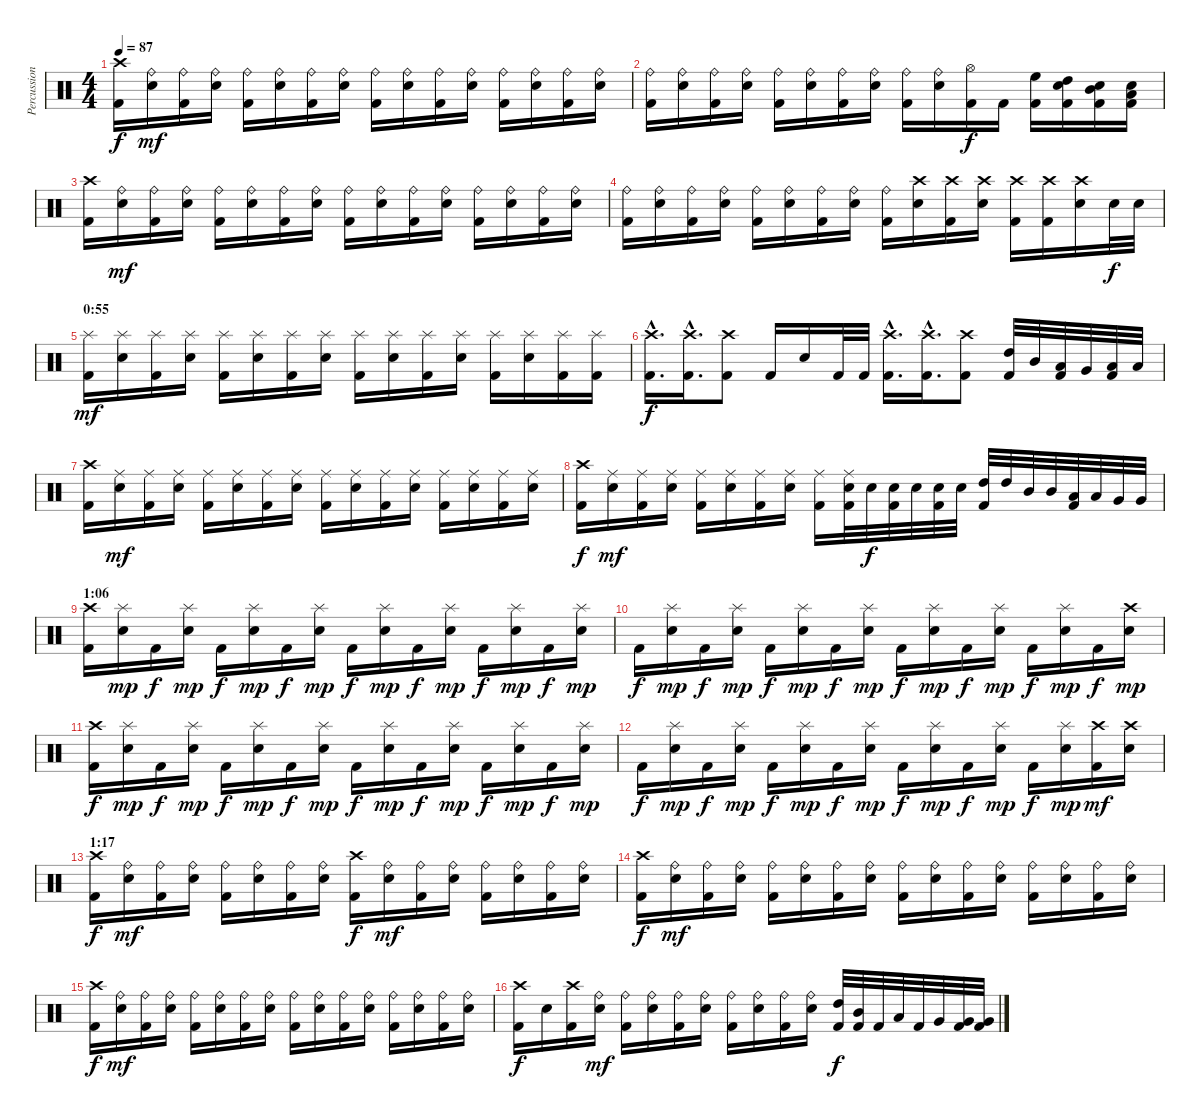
\track ("Percussion" "Percussion") {instrument percussion}
\staff {score}
\articulation defaults
\ts (4 4)
\tempo 87
\clef neutral
\ks c
("Crash high (hit)" "Kick (hit) 2").16{dy f} ("Ride (bell)" "Snare (hit) 2").16{dy mf} ("Ride (bell)" "Kick (hit) 2").16 ("Ride (bell)" "Snare (hit) 2").16 ("Ride (bell)" "Kick (hit) 2").16 ("Ride (bell)" "Snare (hit) 2").16 ("Ride (bell)" "Kick (hit) 2").16 ("Ride (bell)" "Snare (hit) 2").16 ("Ride (bell)" "Kick (hit) 2").16 ("Ride (bell)" "Snare (hit) 2").16 ("Ride (bell)" "Kick (hit) 2").16 ("Ride (bell)" "Snare (hit) 2").16 ("Ride (bell)" "Kick (hit) 2").16 ("Ride (bell)" "Snare (hit) 2").16 ("Ride (bell)" "Kick (hit) 2").16 ("Ride (bell)" "Snare (hit) 2").16 |
("Ride (bell)" "Kick (hit) 2").16 ("Ride (bell)" "Snare (hit) 2").16 ("Ride (bell)" "Kick (hit) 2").16 ("Ride (bell)" "Snare (hit) 2").16 ("Ride (bell)" "Kick (hit) 2").16 ("Ride (bell)" "Snare (hit) 2").16 ("Ride (bell)" "Kick (hit) 2").16 ("Ride (bell)" "Snare (hit) 2").16 ("Ride (bell)" "Kick (hit) 2").16 ("Ride (bell)" "Snare (hit) 2").16 ("Hi-Hat (open)" "Kick (hit) 2").16{dy f} "Kick (hit) 2".16 ("High Floor Tom (hit)" "Kick (hit) 2").16 ("High Tom (hit)" "Snare (hit) 2" "Kick (hit) 2").16 ("Mid Tom (hit)" "Snare (hit) 2" "Kick (hit) 2").16 ("Low Tom (hit)" "Snare (hit) 2" "Kick (hit) 2").16 |
("Crash high (hit)" "Kick (hit) 2").16 ("Ride (bell)" "Snare (hit) 2").16{dy mf} ("Ride (bell)" "Kick (hit) 2").16 ("Ride (bell)" "Snare (hit) 2").16 ("Ride (bell)" "Kick (hit) 2").16 ("Ride (bell)" "Snare (hit) 2").16 ("Ride (bell)" "Kick (hit) 2").16 ("Ride (bell)" "Snare (hit) 2").16 ("Ride (bell)" "Kick (hit) 2").16 ("Ride (bell)" "Snare (hit) 2").16 ("Ride (bell)" "Kick (hit) 2").16 ("Ride (bell)" "Snare (hit) 2").16 ("Ride (bell)" "Kick (hit) 2").16 ("Ride (bell)" "Snare (hit) 2").16 ("Ride (bell)" "Kick (hit) 2").16 ("Ride (bell)" "Snare (hit) 2").16 |
("Ride (bell)" "Kick (hit) 2").16 ("Ride (bell)" "Snare (hit) 2").16 ("Ride (bell)" "Kick (hit) 2").16 ("Ride (bell)" "Snare (hit) 2").16 ("Ride (bell)" "Kick (hit) 2").16 ("Ride (bell)" "Snare (hit) 2").16 ("Ride (bell)" "Kick (hit) 2").16 ("Ride (bell)" "Snare (hit) 2").16 ("Ride (bell)" "Kick (hit) 2").16 ("Crash high (hit)" "Snare (hit) 2").16 ("Crash high (hit)" "Kick (hit) 2").16 ("Crash high (hit)" "Snare (hit) 2").16 ("Crash high (hit)" "Kick (hit) 2").16 ("Crash high (hit)" "Kick (hit) 2").16 ("Crash high (hit)" "Snare (hit) 2").16 "Snare (hit) 2".32{dy f} "Snare (hit) 2".32 |
\section ("" "0:55")
("Splash (hit)" "Kick (hit) 2").16{dy mf} ("Splash (hit)" "Snare (hit) 2").16 ("Splash (hit)" "Kick (hit) 2").16 ("Splash (hit)" "Snare (hit) 2").16 ("Splash (hit)" "Kick (hit) 2").16 ("Splash (hit)" "Snare (hit) 2").16 ("Splash (hit)" "Kick (hit) 2").16 ("Splash (hit)" "Snare (hit) 2").16 ("Splash (hit)" "Kick (hit) 2").16 ("Splash (hit)" "Snare (hit) 2").16 ("Splash (hit)" "Kick (hit) 2").16 ("Splash (hit)" "Snare (hit) 2").16 ("Splash (hit)" "Kick (hit) 2").16 ("Splash (hit)" "Snare (hit) 2").16 ("Splash (hit)" "Kick (hit) 2").16 ("Splash (hit)" "Kick (hit) 2").16 |
("Crash high (hit)"{hac} "Kick (hit) 2"{hac}).16{d dy f} ("Crash high (hit)"{hac} "Kick (hit) 2"{hac}).16{d} ("Crash high (hit)" "Kick (hit) 2").8 "Kick (hit) 2".16 "Snare (hit) 2".16 "Kick (hit) 2".32 "Kick (hit) 2".32 ("Crash high (hit)"{hac} "Kick (hit) 2"{hac}).16{d} ("Crash high (hit)"{hac} "Kick (hit) 2"{hac}).16{d} ("Crash high (hit)" "Kick (hit) 2").8 ("High Tom (hit)" "Kick (hit) 2").32 "Mid Tom (hit)".32 ("Low Tom (hit)" "Kick (hit) 2").32 "Very Low Tom (hit)".32 ("Low Floor Tom (hit)" "Kick (hit) 2").32 "Low Floor Tom (hit)".32 |
("Crash high (hit)" "Kick (hit) 2").16 ("Ride (middle)" "Snare (hit) 2").16{dy mf} ("Ride (middle)" "Kick (hit) 2").16 ("Ride (middle)" "Snare (hit) 2").16 ("Ride (middle)" "Kick (hit) 2").16 ("Ride (middle)" "Snare (hit) 2").16 ("Ride (middle)" "Kick (hit) 2").16 ("Ride (middle)" "Snare (hit) 2").16 ("Ride (middle)" "Kick (hit) 2").16 ("Ride (middle)" "Snare (hit) 2").16 ("Ride (middle)" "Kick (hit) 2").16 ("Ride (middle)" "Snare (hit) 2").16 ("Ride (middle)" "Kick (hit) 2").16 ("Ride (middle)" "Snare (hit) 2").16 ("Ride (middle)" "Kick (hit) 2").16 ("Ride (middle)" "Snare (hit) 2").16 |
("Crash high (hit)" "Kick (hit) 2").16{dy f} ("Ride (middle)" "Snare (hit) 2").16{dy mf} ("Ride (middle)" "Kick (hit) 2").16 ("Ride (middle)" "Snare (hit) 2").16 ("Ride (middle)" "Kick (hit) 2").16 ("Ride (middle)" "Snare (hit) 2").16 ("Ride (middle)" "Kick (hit) 2").16 ("Ride (middle)" "Snare (hit) 2").16 ("Ride (middle)" "Kick (hit) 2").16 ("Ride (middle)" "Snare (hit) 2" "Kick (hit) 2").32 "Snare (hit) 2".32{dy f} ("Snare (hit) 2" "Kick (hit) 2").32 "Snare (hit) 2".32 ("Snare (hit) 2" "Kick (hit) 2").32 "Snare (hit) 2".32 ("High Tom (hit)" "Kick (hit) 2").32 "High Tom (hit)".32 "Mid Tom (hit)".32 "Mid Tom (hit)".32 ("Low Tom (hit)" "Kick (hit) 2").32 "Low Tom (hit)".32 "Very Low Tom (hit)".32 "Very Low Tom (hit)".32 |
\section ("" "1:06")
("Crash high (hit)" "Kick (hit) 2").16 ("Splash (hit)" "Snare (hit) 2").16{dy mp} "Kick (hit) 2".16{dy f} ("Splash (hit)" "Snare (hit) 2").16{dy mp} "Kick (hit) 2".16{dy f} ("Splash (hit)" "Snare (hit) 2").16{dy mp} "Kick (hit) 2".16{dy f} ("Splash (hit)" "Snare (hit) 2").16{dy mp} "Kick (hit) 2".16{dy f} ("Splash (hit)" "Snare (hit) 2").16{dy mp} "Kick (hit) 2".16{dy f} ("Splash (hit)" "Snare (hit) 2").16{dy mp} "Kick (hit) 2".16{dy f} ("Splash (hit)" "Snare (hit) 2").16{dy mp} "Kick (hit) 2".16{dy f} ("Splash (hit)" "Snare (hit) 2").16{dy mp} |
"Kick (hit) 2".16{dy f} ("Splash (hit)" "Snare (hit) 2").16{dy mp} "Kick (hit) 2".16{dy f} ("Splash (hit)" "Snare (hit) 2").16{dy mp} "Kick (hit) 2".16{dy f} ("Splash (hit)" "Snare (hit) 2").16{dy mp} "Kick (hit) 2".16{dy f} ("Splash (hit)" "Snare (hit) 2").16{dy mp} "Kick (hit) 2".16{dy f} ("Splash (hit)" "Snare (hit) 2").16{dy mp} "Kick (hit) 2".16{dy f} ("Splash (hit)" "Snare (hit) 2").16{dy mp} "Kick (hit) 2".16{dy f} ("Splash (hit)" "Snare (hit) 2").16{dy mp} "Kick (hit) 2".16{dy f} ("Crash high (hit)" "Snare (hit) 2").16{dy mp} |
("Crash high (hit)" "Kick (hit) 2").16{dy f} ("Splash (hit)" "Snare (hit) 2").16{dy mp} "Kick (hit) 2".16{dy f} ("Splash (hit)" "Snare (hit) 2").16{dy mp} "Kick (hit) 2".16{dy f} ("Splash (hit)" "Snare (hit) 2").16{dy mp} "Kick (hit) 2".16{dy f} ("Splash (hit)" "Snare (hit) 2").16{dy mp} "Kick (hit) 2".16{dy f} ("Splash (hit)" "Snare (hit) 2").16{dy mp} "Kick (hit) 2".16{dy f} ("Splash (hit)" "Snare (hit) 2").16{dy mp} "Kick (hit) 2".16{dy f} ("Splash (hit)" "Snare (hit) 2").16{dy mp} "Kick (hit) 2".16{dy f} ("Splash (hit)" "Snare (hit) 2").16{dy mp} |
"Kick (hit) 2".16{dy f} ("Splash (hit)" "Snare (hit) 2").16{dy mp} "Kick (hit) 2".16{dy f} ("Splash (hit)" "Snare (hit) 2").16{dy mp} "Kick (hit) 2".16{dy f} ("Splash (hit)" "Snare (hit) 2").16{dy mp} "Kick (hit) 2".16{dy f} ("Splash (hit)" "Snare (hit) 2").16{dy mp} "Kick (hit) 2".16{dy f} ("Splash (hit)" "Snare (hit) 2").16{dy mp} "Kick (hit) 2".16{dy f} ("Splash (hit)" "Snare (hit) 2").16{dy mp} "Kick (hit) 2".16{dy f} ("Splash (hit)" "Snare (hit) 2").16{dy mp} ("Crash high (hit)" "Kick (hit) 2").16{dy mf} ("Crash high (hit)" "Snare (hit) 2").16 |
\section ("" "1:17")
("Crash high (hit)" "Kick (hit) 2").16{dy f} ("Ride (bell)" "Snare (hit) 2").16{dy mf} ("Ride (bell)" "Kick (hit) 2").16 ("Ride (bell)" "Snare (hit) 2").16 ("Ride (bell)" "Kick (hit) 2").16 ("Ride (bell)" "Snare (hit) 2").16 ("Ride (bell)" "Kick (hit) 2").16 ("Ride (bell)" "Snare (hit) 2").16 ("Crash high (hit)" "Kick (hit) 2").16{dy f} ("Ride (bell)" "Snare (hit) 2").16{dy mf} ("Ride (bell)" "Kick (hit) 2").16 ("Ride (bell)" "Snare (hit) 2").16 ("Ride (bell)" "Kick (hit) 2").16 ("Ride (bell)" "Snare (hit) 2").16 ("Ride (bell)" "Kick (hit) 2").16 ("Ride (bell)" "Snare (hit) 2").16 |
("Crash high (hit)" "Kick (hit) 2").16{dy f} ("Ride (bell)" "Snare (hit) 2").16{dy mf} ("Ride (bell)" "Kick (hit) 2").16 ("Ride (bell)" "Snare (hit) 2").16 ("Ride (bell)" "Kick (hit) 2").16 ("Ride (bell)" "Snare (hit) 2").16 ("Ride (bell)" "Kick (hit) 2").16 ("Ride (bell)" "Snare (hit) 2").16 ("Ride (bell)" "Kick (hit) 2").16 ("Ride (bell)" "Snare (hit) 2").16 ("Ride (bell)" "Kick (hit) 2").16 ("Ride (bell)" "Snare (hit) 2").16 ("Ride (bell)" "Kick (hit) 2").16 ("Ride (bell)" "Snare (hit) 2").16 ("Ride (bell)" "Kick (hit) 2").16 ("Ride (bell)" "Snare (hit) 2").16 |
("Crash high (hit)" "Kick (hit) 2").16{dy f} ("Ride (bell)" "Snare (hit) 2").16{dy mf} ("Ride (bell)" "Kick (hit) 2").16 ("Ride (bell)" "Snare (hit) 2").16 ("Ride (bell)" "Kick (hit) 2").16 ("Ride (bell)" "Snare (hit) 2").16 ("Ride (bell)" "Kick (hit) 2").16 ("Ride (bell)" "Snare (hit) 2").16 ("Ride (bell)" "Kick (hit) 2").16 ("Ride (bell)" "Snare (hit) 2").16 ("Ride (bell)" "Kick (hit) 2").16 ("Ride (bell)" "Snare (hit) 2").16 ("Ride (bell)" "Kick (hit) 2").16 ("Ride (bell)" "Snare (hit) 2").16 ("Ride (bell)" "Kick (hit) 2").16 ("Ride (bell)" "Snare (hit) 2").16 |
("Crash high (hit)" "Kick (hit) 2").16{dy f} "Snare (hit) 2".16 ("Crash high (hit)" "Kick (hit) 2").16 ("Ride (bell)" "Snare (hit) 2").16{dy mf} ("Ride (bell)" "Kick (hit) 2").16 ("Ride (bell)" "Snare (hit) 2").16 ("Ride (bell)" "Kick (hit) 2").16 ("Ride (bell)" "Snare (hit) 2").16 ("Ride (bell)" "Kick (hit) 2").16 ("Ride (bell)" "Snare (hit) 2").16 ("Ride (bell)" "Kick (hit) 2").16 ("Ride (bell)" "Snare (hit) 2").16 ("High Tom (hit)" "Kick (hit) 2").32{dy f} ("Mid Tom (hit)" "Kick (hit) 2").32 "Kick (hit) 2".32 "Low Tom (hit)".32 "Kick (hit) 2".32 "Very Low Tom (hit)".32 ("Very Low Tom (hit)" "Kick (hit) 2").32 ("Very Low Tom (hit)" "Kick (hit) 2").32
